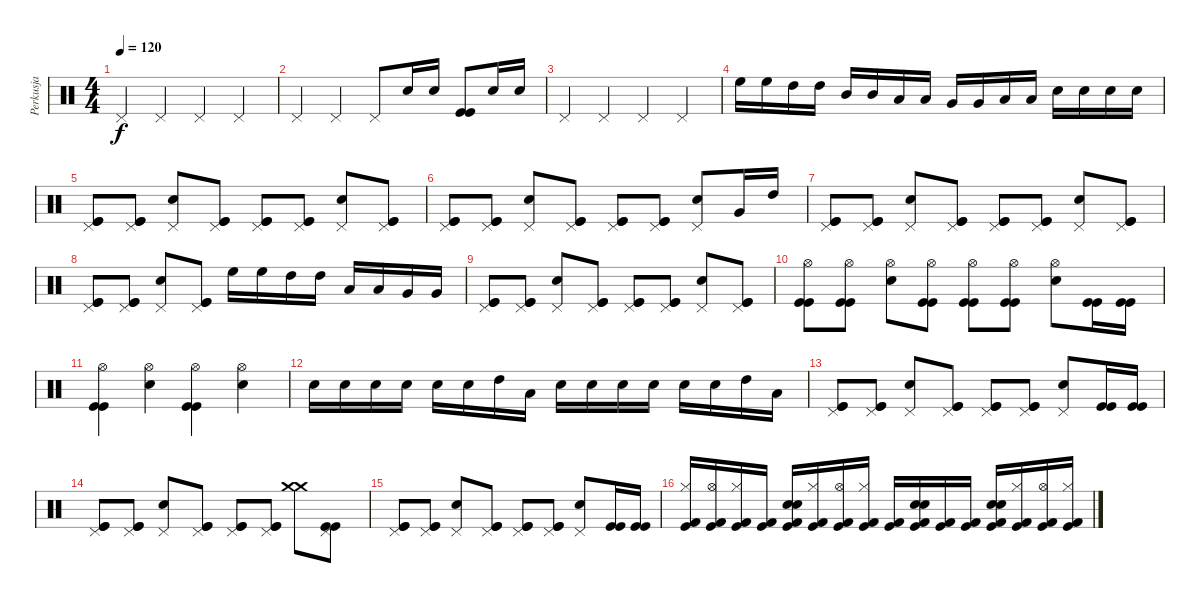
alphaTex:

\track ("Perkusja" "Perkusja") {instrument percussion}
\staff {score}
\articulation defaults
\ts (4 4)
\tempo 120
\clef neutral
\ks c "Pedal Hi-Hat (hit)".4{dy f} "Pedal Hi-Hat (hit)".4 "Pedal Hi-Hat (hit)".4 "Pedal Hi-Hat (hit)".4
|
"Pedal Hi-Hat (hit)".4 "Pedal Hi-Hat (hit)".4 "Pedal Hi-Hat (hit)".8 "Snare (hit) 2".16 "Snare (hit) 2".16 ("Kick (hit)" "Kick (hit)").8 "Snare (hit) 2".16 "Snare (hit) 2".16 |
"Pedal Hi-Hat (hit)".4 "Pedal Hi-Hat (hit)".4 "Pedal Hi-Hat (hit)".4 "Pedal Hi-Hat (hit)".4 |
"High Floor Tom (hit)".16 "High Floor Tom (hit)".16 "High Tom (hit)".16 "High Tom (hit)".16 "Mid Tom (hit)".16 "Mid Tom (hit)".16 "Low Tom (hit)".16 "Low Tom (hit)".16 "Very Low Tom (hit)".16 "Very Low Tom (hit)".16 "Low Floor Tom (hit)".16 "Low Floor Tom (hit)".16 "Electric Snare (hit)".16 "Electric Snare (hit)".16 "Snare (hit) 2".16 "Snare (hit) 2".16 |
("Pedal Hi-Hat (hit)" "Kick (hit)" "Kick (hit)").8 ("Pedal Hi-Hat (hit)" "Kick (hit)" "Kick (hit)").8 ("Pedal Hi-Hat (hit)" "Snare (hit) 2").8 ("Pedal Hi-Hat (hit)" "Kick (hit)" "Kick (hit)").8 ("Pedal Hi-Hat (hit)" "Kick (hit)" "Kick (hit)").8 ("Pedal Hi-Hat (hit)" "Kick (hit)" "Kick (hit)").8 ("Pedal Hi-Hat (hit)" "Snare (hit) 2").8 ("Pedal Hi-Hat (hit)" "Kick (hit)" "Kick (hit)").8 |
("Pedal Hi-Hat (hit)" "Kick (hit)" "Kick (hit)").8 ("Pedal Hi-Hat (hit)" "Kick (hit)" "Kick (hit)").8 ("Pedal Hi-Hat (hit)" "Snare (hit) 2").8 ("Pedal Hi-Hat (hit)" "Kick (hit)" "Kick (hit)").8 ("Pedal Hi-Hat (hit)" "Kick (hit)" "Kick (hit)").8 ("Pedal Hi-Hat (hit)" "Kick (hit)" "Kick (hit)").8 ("Pedal Hi-Hat (hit)" "Snare (hit) 2").8 "Very Low Tom (hit)".16 "High Tom (hit)".16 |
("Pedal Hi-Hat (hit)" "Kick (hit)" "Kick (hit)").8 ("Pedal Hi-Hat (hit)" "Kick (hit)" "Kick (hit)").8 ("Pedal Hi-Hat (hit)" "Snare (hit) 2").8 ("Pedal Hi-Hat (hit)" "Kick (hit)" "Kick (hit)").8 ("Pedal Hi-Hat (hit)" "Kick (hit)" "Kick (hit)").8 ("Pedal Hi-Hat (hit)" "Kick (hit)" "Kick (hit)").8 ("Pedal Hi-Hat (hit)" "Snare (hit) 2").8 ("Pedal Hi-Hat (hit)" "Kick (hit)" "Kick (hit)").8 |
("Pedal Hi-Hat (hit)" "Kick (hit)" "Kick (hit)").8 ("Pedal Hi-Hat (hit)" "Kick (hit)" "Kick (hit)").8 ("Pedal Hi-Hat (hit)" "Snare (hit) 2").8 ("Pedal Hi-Hat (hit)" "Kick (hit)" "Kick (hit)").8 "High Floor Tom (hit)".16 "High Floor Tom (hit)".16 "High Tom (hit)".16 "High Tom (hit)".16 "Low Tom (hit)".16 "Low Tom (hit)".16 "Very Low Tom (hit)".16 "Very Low Tom (hit)".16 |
("Pedal Hi-Hat (hit)" "Kick (hit)" "Kick (hit)").8 ("Pedal Hi-Hat (hit)" "Kick (hit)" "Kick (hit)").8 ("Pedal Hi-Hat (hit)" "Snare (hit) 2").8 ("Pedal Hi-Hat (hit)" "Kick (hit)" "Kick (hit)").8 ("Pedal Hi-Hat (hit)" "Kick (hit)" "Kick (hit)").8 ("Pedal Hi-Hat (hit)" "Kick (hit)" "Kick (hit)").8 ("Pedal Hi-Hat (hit)" "Snare (hit) 2").8 ("Pedal Hi-Hat (hit)" "Kick (hit)" "Kick (hit)").8 |
("Hi-Hat (open)" "Kick (hit)" "Kick (hit)").8 ("Hi-Hat (open)" "Kick (hit)" "Kick (hit)").8 ("Hi-Hat (open)" "Snare (hit) 2").8 ("Hi-Hat (open)" "Kick (hit)" "Kick (hit)").8 ("Hi-Hat (open)" "Kick (hit)" "Kick (hit)").8 ("Hi-Hat (open)" "Kick (hit)" "Kick (hit)").8 ("Hi-Hat (open)" "Snare (hit) 2").8 ("Kick (hit)" "Kick (hit)").16 ("Kick (hit)" "Kick (hit)").16 |
("Hi-Hat (open)" "Kick (hit)" "Kick (hit)").4 ("Hi-Hat (open)" "Snare (hit) 2").4 ("Hi-Hat (open)" "Kick (hit)" "Kick (hit)").4 ("Hi-Hat (open)" "Snare (hit) 2").4 |
"Snare (hit) 2".16 "Snare (hit) 2".16 "Snare (hit) 2".16 "Snare (hit) 2".16 "Electric Snare (hit)".16 "Electric Snare (hit)".16 "High Tom (hit)".16 "Low Tom (hit)".16 "Snare (hit) 2".16 "Snare (hit) 2".16 "Snare (hit) 2".16 "Snare (hit) 2".16 "Electric Snare (hit)".16 "Electric Snare (hit)".16 "High Tom (hit)".16 "Low Tom (hit)".16 |
("Pedal Hi-Hat (hit)" "Kick (hit)" "Kick (hit)").8 ("Pedal Hi-Hat (hit)" "Kick (hit)" "Kick (hit)").8 ("Pedal Hi-Hat (hit)" "Snare (hit) 2").8 ("Pedal Hi-Hat (hit)" "Kick (hit)" "Kick (hit)").8 ("Pedal Hi-Hat (hit)" "Kick (hit)" "Kick (hit)").8 ("Pedal Hi-Hat (hit)" "Kick (hit)" "Kick (hit)").8 ("Pedal Hi-Hat (hit)" "Snare (hit) 2").8 ("Kick (hit)" "Kick (hit)").16 ("Kick (hit)" "Kick (hit)").16 |
("Pedal Hi-Hat (hit)" "Kick (hit)" "Kick (hit)").8 ("Pedal Hi-Hat (hit)" "Kick (hit)" "Kick (hit)").8 ("Pedal Hi-Hat (hit)" "Snare (hit) 2").8 ("Pedal Hi-Hat (hit)" "Kick (hit)" "Kick (hit)").8 ("Pedal Hi-Hat (hit)" "Kick (hit)" "Kick (hit)").8 ("Pedal Hi-Hat (hit)" "Kick (hit)" "Kick (hit)").8 ("Crash medium (hit)" "Crash medium (hit)").8 ("Pedal Hi-Hat (hit)" "Kick (hit)" "Kick (hit)").8 |
("Pedal Hi-Hat (hit)" "Kick (hit)" "Kick (hit)").8 ("Pedal Hi-Hat (hit)" "Kick (hit)" "Kick (hit)").8 ("Pedal Hi-Hat (hit)" "Snare (hit) 2").8 ("Pedal Hi-Hat (hit)" "Kick (hit)" "Kick (hit)").8 ("Pedal Hi-Hat (hit)" "Kick (hit)" "Kick (hit)").8 ("Pedal Hi-Hat (hit)" "Kick (hit)" "Kick (hit)").8 ("Pedal Hi-Hat (hit)" "Snare (hit) 2").8 ("Kick (hit)" "Kick (hit)").16 ("Kick (hit)" "Kick (hit)").16 |
("Hi-Hat (closed)" "Kick (hit) 2" "Kick (hit)").16 ("Hi-Hat (open)" "Kick (hit) 2" "Kick (hit)").16 ("Hi-Hat (closed)" "Kick (hit) 2" "Kick (hit)").16 ("Kick (hit) 2" "Kick (hit)").16 ("Snare (hit) 2" "Snare (hit) 2" "Kick (hit) 2" "Kick (hit)").16 ("Hi-Hat (closed)" "Kick (hit) 2" "Kick (hit)").16 ("Hi-Hat (open)" "Kick (hit) 2" "Kick (hit)").16 ("Hi-Hat (closed)" "Kick (hit) 2" "Kick (hit)").16 ("Kick (hit) 2" "Kick (hit)").16 ("Snare (hit) 2" "Snare (hit) 2" "Kick (hit) 2" "Kick (hit)").16 ("Kick (hit) 2" "Kick (hit)").16 ("Kick (hit) 2" "Kick (hit)").16 ("Snare (hit) 2" "Snare (hit) 2" "Kick (hit) 2" "Kick (hit)").16 ("Hi-Hat (closed)" "Kick (hit) 2" "Kick (hit)").16 ("Hi-Hat (open)" "Kick (hit) 2" "Kick (hit)").16 ("Hi-Hat (closed)" "Kick (hit) 2" "Kick (hit)").16
